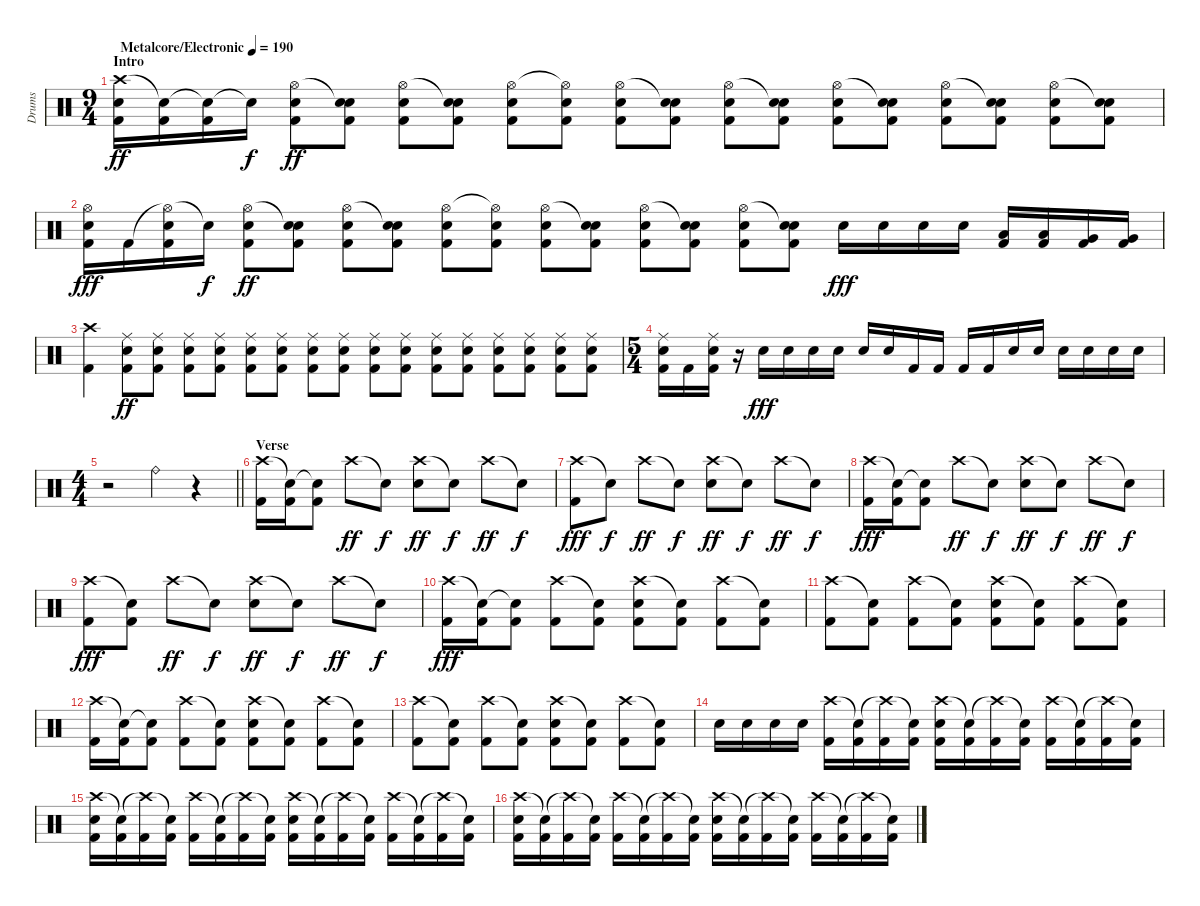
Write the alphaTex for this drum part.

\track ("Drums" "Drums") {instrument percussion}
\staff {score}
\articulation defaults
\ts (9 4)
\section ("" "Intro")
\tempo (190 "Metalcore/Electronic")
\clef neutral
\ks c
("Crash high (hit)" "Electric Snare (hit)" "Kick (hit) 2").16{dy ff} ("Snare (hit)"{t} "Kick (hit) 2").16 ("Snare (hit)"{t} "Kick (hit) 2").16 "Snare (hit)"{t}.16{dy f} ("Hi-Hat (open)" "Electric Snare (hit)" "Kick (hit) 2").8{dy ff} ("Snare (hit)"{t} "Electric Snare (hit)" "Kick (hit) 2").8 ("Hi-Hat (open)" "Electric Snare (hit)" "Kick (hit) 2").8 ("Snare (hit)"{t} "Electric Snare (hit)" "Kick (hit) 2").8 ("Hi-Hat (open)" "Electric Snare (hit)" "Kick (hit) 2").8 ("Hi-Hat (open)"{t} "Electric Snare (hit)" "Kick (hit) 2").8 ("Hi-Hat (open)" "Electric Snare (hit)" "Kick (hit) 2").8 ("Snare (hit)"{t} "Electric Snare (hit)" "Kick (hit) 2").8 ("Hi-Hat (open)" "Electric Snare (hit)" "Kick (hit) 2").8 ("Snare (hit)"{t} "Electric Snare (hit)" "Kick (hit) 2").8 ("Hi-Hat (open)" "Electric Snare (hit)" "Kick (hit) 2").8 ("Snare (hit)"{t} "Electric Snare (hit)" "Kick (hit) 2").8 ("Hi-Hat (open)" "Electric Snare (hit)" "Kick (hit) 2").8 ("Snare (hit)"{t} "Electric Snare (hit)" "Kick (hit) 2").8 ("Hi-Hat (open)" "Electric Snare (hit)" "Kick (hit) 2").8 ("Snare (hit)"{t} "Electric Snare (hit)" "Kick (hit) 2").8 |
("Hi-Hat (open)" "Electric Snare (hit)" "Kick (hit) 2").16{dy fff} "Kick (hit) 2".16 ("Hi-Hat (open)"{t} "Electric Snare (hit)" "Kick (hit) 2").16 "Snare (hit)"{t}.16{dy f} ("Hi-Hat (open)" "Electric Snare (hit)" "Kick (hit) 2").8{dy ff} ("Snare (hit)"{t} "Electric Snare (hit)" "Kick (hit) 2").8 ("Hi-Hat (open)" "Electric Snare (hit)" "Kick (hit) 2").8 ("Snare (hit)"{t} "Electric Snare (hit)" "Kick (hit) 2").8 ("Hi-Hat (open)" "Electric Snare (hit)" "Kick (hit) 2").8 ("Hi-Hat (open)"{t} "Electric Snare (hit)" "Kick (hit) 2").8 ("Hi-Hat (open)" "Electric Snare (hit)" "Kick (hit) 2").8 ("Snare (hit)"{t} "Electric Snare (hit)" "Kick (hit) 2").8 ("Hi-Hat (open)" "Electric Snare (hit)" "Kick (hit) 2").8 ("Snare (hit)"{t} "Electric Snare (hit)" "Kick (hit) 2").8 ("Hi-Hat (open)" "Electric Snare (hit)" "Kick (hit) 2").8 ("Snare (hit)"{t} "Electric Snare (hit)" "Kick (hit) 2").8 "Electric Snare (hit)".16{dy fff} "Electric Snare (hit)".16 "Electric Snare (hit)".16 "Electric Snare (hit)".16 ("Low Tom (hit)" "Kick (hit) 2").16 ("Low Tom (hit)" "Kick (hit) 2").16 ("Very Low Tom (hit)" "Kick (hit) 2").16 ("Very Low Tom (hit)" "Kick (hit) 2").16 |
("Crash high (hit)" "Kick (hit) 2").4 ("Ride (middle)" "Electric Snare (hit)" "Kick (hit) 2").8{dy ff} ("Ride (middle)" "Electric Snare (hit)" "Kick (hit) 2").8 ("Ride (middle)" "Electric Snare (hit)" "Kick (hit) 2").8 ("Ride (middle)" "Electric Snare (hit)" "Kick (hit) 2").8 ("Ride (middle)" "Electric Snare (hit)" "Kick (hit) 2").8 ("Ride (middle)" "Electric Snare (hit)" "Kick (hit) 2").8 ("Ride (middle)" "Electric Snare (hit)" "Kick (hit) 2").8 ("Ride (middle)" "Electric Snare (hit)" "Kick (hit) 2").8 ("Ride (middle)" "Electric Snare (hit)" "Kick (hit) 2").8 ("Ride (middle)" "Electric Snare (hit)" "Kick (hit) 2").8 ("Ride (middle)" "Electric Snare (hit)" "Kick (hit) 2").8 ("Ride (middle)" "Electric Snare (hit)" "Kick (hit) 2").8 ("Ride (middle)" "Electric Snare (hit)" "Kick (hit) 2").8 ("Ride (middle)" "Electric Snare (hit)" "Kick (hit) 2").8 ("Ride (middle)" "Electric Snare (hit)" "Kick (hit) 2").8 ("Ride (middle)" "Electric Snare (hit)" "Kick (hit) 2").8 |
\ts (5 4)
("Ride (middle)" "Electric Snare (hit)" "Kick (hit) 2").16 "Kick (hit) 2".16 ("Ride (middle)" "Electric Snare (hit)" "Kick (hit) 2").16 r.16 "Electric Snare (hit)".16{dy fff} "Electric Snare (hit)".16 "Electric Snare (hit)".16 "Electric Snare (hit)".16 "Electric Snare (hit)".16 "Electric Snare (hit)".16 "Kick (hit) 2".16 "Kick (hit) 2".16 "Kick (hit) 2".16 "Kick (hit) 2".16 "Electric Snare (hit)".16 "Electric Snare (hit)".16 "Electric Snare (hit)".16 "Electric Snare (hit)".16 "Electric Snare (hit)".16 "Electric Snare (hit)".16 |
\ts (4 4)
\barLineRight lightlight
r.2 "Ride (bell)".4 r.4 |
\section ("" "Verse ")
("Crash high (hit)" "Kick (hit) 2").16 ("Snare (hit)"{t} "Kick (hit) 2").16 ("Snare (hit)"{t} "Kick (hit) 2").8 "Crash high (hit)".8{dy ff} "Snare (hit)"{t}.8{dy f} ("Crash high (hit)" "Electric Snare (hit)").8{dy ff} "Snare (hit)"{t}.8{dy f} "Crash high (hit)".8{dy ff} "Snare (hit)"{t}.8{dy f} |
("Crash high (hit)" "Kick (hit) 2").8{dy fff} "Snare (hit)"{t}.8{dy f} "Crash high (hit)".8{dy ff} "Snare (hit)"{t}.8{dy f} ("Crash high (hit)" "Electric Snare (hit)").8{dy ff} "Snare (hit)"{t}.8{dy f} "Crash high (hit)".8{dy ff} "Snare (hit)"{t}.8{dy f} |
("Crash high (hit)" "Kick (hit) 2").16{dy fff} ("Snare (hit)"{t} "Kick (hit) 2").16 ("Snare (hit)"{t} "Kick (hit) 2").8 "Crash high (hit)".8{dy ff} "Snare (hit)"{t}.8{dy f} ("Crash high (hit)" "Electric Snare (hit)").8{dy ff} "Snare (hit)"{t}.8{dy f} "Crash high (hit)".8{dy ff} "Snare (hit)"{t}.8{dy f} |
("Crash high (hit)" "Kick (hit) 2").8{dy fff} ("Snare (hit)"{t} "Kick (hit) 2").8 "Crash high (hit)".8{dy ff} "Snare (hit)"{t}.8{dy f} ("Crash high (hit)" "Electric Snare (hit)").8{dy ff} "Snare (hit)"{t}.8{dy f} "Crash high (hit)".8{dy ff} "Snare (hit)"{t}.8{dy f} |
("Crash high (hit)" "Kick (hit) 2").16{dy fff} ("Snare (hit)"{t} "Kick (hit) 2").16 ("Snare (hit)"{t} "Kick (hit) 2").8 ("Crash high (hit)" "Kick (hit) 2").8 ("Snare (hit)"{t} "Kick (hit) 2").8 ("Crash high (hit)" "Electric Snare (hit)" "Kick (hit) 2").8 ("Snare (hit)"{t} "Kick (hit) 2").8 ("Crash high (hit)" "Kick (hit) 2").8 ("Snare (hit)"{t} "Kick (hit) 2").8 |
("Crash high (hit)" "Kick (hit) 2").8 ("Snare (hit)"{t} "Kick (hit) 2").8 ("Crash high (hit)" "Kick (hit) 2").8 ("Snare (hit)"{t} "Kick (hit) 2").8 ("Crash high (hit)" "Electric Snare (hit)" "Kick (hit) 2").8 ("Snare (hit)"{t} "Kick (hit) 2").8 ("Crash high (hit)" "Kick (hit) 2").8 ("Snare (hit)"{t} "Kick (hit) 2").8 |
("Crash high (hit)" "Kick (hit) 2").16 ("Snare (hit)"{t} "Kick (hit) 2").16 ("Snare (hit)"{t} "Kick (hit) 2").8 ("Crash high (hit)" "Kick (hit) 2").8 ("Snare (hit)"{t} "Kick (hit) 2").8 ("Crash high (hit)" "Electric Snare (hit)" "Kick (hit) 2").8 ("Snare (hit)"{t} "Kick (hit) 2").8 ("Crash high (hit)" "Kick (hit) 2").8 ("Snare (hit)"{t} "Kick (hit) 2").8 |
("Crash high (hit)" "Kick (hit) 2").8 ("Snare (hit)"{t} "Kick (hit) 2").8 ("Crash high (hit)" "Kick (hit) 2").8 ("Snare (hit)"{t} "Kick (hit) 2").8 ("Crash high (hit)" "Electric Snare (hit)" "Kick (hit) 2").8 ("Snare (hit)"{t} "Kick (hit) 2").8 ("Crash high (hit)" "Kick (hit) 2").8 ("Snare (hit)"{t} "Kick (hit) 2").8 |
"Electric Snare (hit)".16 "Electric Snare (hit)".16 "Electric Snare (hit)".16 "Electric Snare (hit)".16 ("Crash high (hit)" "Kick (hit) 2").16 ("Snare (hit)"{t} "Kick (hit) 2").16 ("Crash high (hit)"{t} "Kick (hit) 2").16 ("Snare (hit)"{t} "Kick (hit) 2").16 ("Crash high (hit)" "Electric Snare (hit)" "Kick (hit) 2").16 ("Snare (hit)"{t} "Kick (hit) 2").16 ("Crash high (hit)"{t} "Kick (hit) 2").16 ("Snare (hit)"{t} "Kick (hit) 2").16 ("Crash high (hit)" "Kick (hit) 2").16 ("Snare (hit)"{t} "Kick (hit) 2").16 ("Crash high (hit)"{t} "Kick (hit) 2").16 ("Snare (hit)"{t} "Kick (hit) 2").16 |
("Crash high (hit)" "Electric Snare (hit)" "Kick (hit) 2").16 ("Snare (hit)"{t} "Kick (hit) 2").16 ("Crash high (hit)"{t} "Kick (hit) 2").16 ("Snare (hit)"{t} "Kick (hit) 2").16 ("Crash high (hit)" "Kick (hit) 2").16 ("Snare (hit)"{t} "Kick (hit) 2").16 ("Crash high (hit)"{t} "Kick (hit) 2").16 ("Snare (hit)"{t} "Kick (hit) 2").16 ("Crash high (hit)" "Electric Snare (hit)" "Kick (hit) 2").16 ("Snare (hit)"{t} "Kick (hit) 2").16 ("Crash high (hit)"{t} "Kick (hit) 2").16 ("Snare (hit)"{t} "Kick (hit) 2").16 ("Crash high (hit)" "Kick (hit) 2").16 ("Snare (hit)"{t} "Kick (hit) 2").16 ("Crash high (hit)"{t} "Kick (hit) 2").16 ("Snare (hit)"{t} "Kick (hit) 2").16 |
("Crash high (hit)" "Electric Snare (hit)" "Kick (hit) 2").16 ("Snare (hit)"{t} "Kick (hit) 2").16 ("Crash high (hit)"{t} "Kick (hit) 2").16 ("Snare (hit)"{t} "Kick (hit) 2").16 ("Crash high (hit)" "Kick (hit) 2").16 ("Snare (hit)"{t} "Kick (hit) 2").16 ("Crash high (hit)"{t} "Kick (hit) 2").16 ("Snare (hit)"{t} "Kick (hit) 2").16 ("Crash high (hit)" "Electric Snare (hit)" "Kick (hit) 2").16 ("Snare (hit)"{t} "Kick (hit) 2").16 ("Crash high (hit)"{t} "Kick (hit) 2").16 ("Snare (hit)"{t} "Kick (hit) 2").16 ("Crash high (hit)" "Kick (hit) 2").16 ("Snare (hit)"{t} "Kick (hit) 2").16 ("Crash high (hit)"{t} "Kick (hit) 2").16 ("Snare (hit)"{t} "Kick (hit) 2").16
